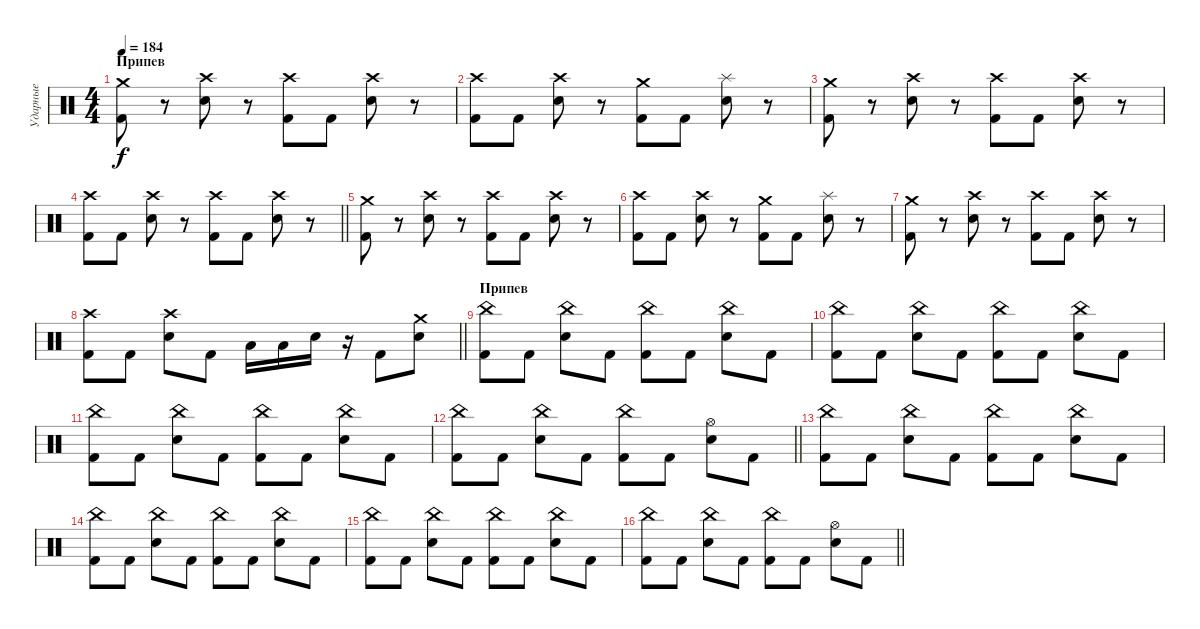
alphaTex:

\track ("Ударные" "Ударные") {instrument percussion}
\staff {score}
\articulation defaults
\ts (4 4)
\section ("" "Припев")
\tempo 184
\clef neutral
\ks c
("Crash medium (hit)" "Kick (hit) 2").8{dy f} r.8 ("Crash high (hit)" "Snare (hit) 2").8 r.8 ("Crash high (hit)" "Kick (hit) 2").8 "Kick (hit) 2".8 ("Crash high (hit)" "Snare (hit) 2").8 r.8 |
("Crash high (hit)" "Kick (hit) 2").8 "Kick (hit) 2".8 ("Crash high (hit)" "Snare (hit) 2").8 r.8 ("Crash medium (hit)" "Kick (hit) 2").8 "Kick (hit) 2".8 ("Splash (hit)" "Snare (hit) 2").8 r.8 |
("Crash medium (hit)" "Kick (hit) 2").8 r.8 ("Crash high (hit)" "Snare (hit) 2").8 r.8 ("Crash high (hit)" "Kick (hit) 2").8 "Kick (hit) 2".8 ("Crash high (hit)" "Snare (hit) 2").8 r.8 |
\barLineRight lightlight
("Crash high (hit)" "Kick (hit) 2").8 "Kick (hit) 2".8 ("Crash high (hit)" "Snare (hit) 2").8 r.8 ("Crash high (hit)" "Kick (hit) 2").8 "Kick (hit) 2".8 ("Crash high (hit)" "Snare (hit) 2").8 r.8 |
("Crash medium (hit)" "Kick (hit) 2").8 r.8 ("Crash high (hit)" "Snare (hit) 2").8 r.8 ("Crash high (hit)" "Kick (hit) 2").8 "Kick (hit) 2".8 ("Crash high (hit)" "Snare (hit) 2").8 r.8 |
("Crash high (hit)" "Kick (hit) 2").8 "Kick (hit) 2".8 ("Crash high (hit)" "Snare (hit) 2").8 r.8 ("Crash medium (hit)" "Kick (hit) 2").8 "Kick (hit) 2".8 ("Splash (hit)" "Snare (hit) 2").8 r.8 |
("Crash medium (hit)" "Kick (hit) 2").8 r.8 ("Crash high (hit)" "Snare (hit) 2").8 r.8 ("Crash high (hit)" "Kick (hit) 2").8 "Kick (hit) 2".8 ("Crash high (hit)" "Snare (hit) 2").8 r.8 |
\barLineRight lightlight
("Crash high (hit)" "Kick (hit) 2").8 "Kick (hit) 2".8 ("Crash high (hit)" "Snare (hit) 2").8 "Kick (hit) 2".8 "Low Tom (hit)".16 "Low Tom (hit)".16 "Snare (hit) 2".16 r.16 "Kick (hit) 2".8 ("Crash medium (hit)" "Snare (hit) 2").8 |
\section ("" "Припев ")
("China (hit)" "Kick (hit) 2").8 "Kick (hit) 2".8 ("China (hit)" "Snare (hit) 2").8 "Kick (hit) 2".8 ("China (hit)" "Kick (hit) 2").8 "Kick (hit) 2".8 ("China (hit)" "Snare (hit) 2").8 "Kick (hit) 2".8 |
("China (hit)" "Kick (hit) 2").8 "Kick (hit) 2".8 ("China (hit)" "Snare (hit) 2").8 "Kick (hit) 2".8 ("China (hit)" "Kick (hit) 2").8 "Kick (hit) 2".8 ("China (hit)" "Snare (hit) 2").8 "Kick (hit) 2".8 |
("China (hit)" "Kick (hit) 2").8 "Kick (hit) 2".8 ("China (hit)" "Snare (hit) 2").8 "Kick (hit) 2".8 ("China (hit)" "Kick (hit) 2").8 "Kick (hit) 2".8 ("China (hit)" "Snare (hit) 2").8 "Kick (hit) 2".8 |
\barLineRight lightlight
("China (hit)" "Kick (hit) 2").8 "Kick (hit) 2".8 ("China (hit)" "Snare (hit) 2").8 "Kick (hit) 2".8 ("China (hit)" "Kick (hit) 2").8 "Kick (hit) 2".8 ("Hi-Hat (open)" "Snare (hit) 2").8 "Kick (hit) 2".8 |
("China (hit)" "Kick (hit) 2").8 "Kick (hit) 2".8 ("China (hit)" "Snare (hit) 2").8 "Kick (hit) 2".8 ("China (hit)" "Kick (hit) 2").8 "Kick (hit) 2".8 ("China (hit)" "Snare (hit) 2").8 "Kick (hit) 2".8 |
("China (hit)" "Kick (hit) 2").8 "Kick (hit) 2".8 ("China (hit)" "Snare (hit) 2").8 "Kick (hit) 2".8 ("China (hit)" "Kick (hit) 2").8 "Kick (hit) 2".8 ("China (hit)" "Snare (hit) 2").8 "Kick (hit) 2".8 |
("China (hit)" "Kick (hit) 2").8 "Kick (hit) 2".8 ("China (hit)" "Snare (hit) 2").8 "Kick (hit) 2".8 ("China (hit)" "Kick (hit) 2").8 "Kick (hit) 2".8 ("China (hit)" "Snare (hit) 2").8 "Kick (hit) 2".8 |
\barLineRight lightlight
("China (hit)" "Kick (hit) 2").8 "Kick (hit) 2".8 ("China (hit)" "Snare (hit) 2").8 "Kick (hit) 2".8 ("China (hit)" "Kick (hit) 2").8 "Kick (hit) 2".8 ("Hi-Hat (open)" "Snare (hit) 2").8 "Kick (hit) 2".8
